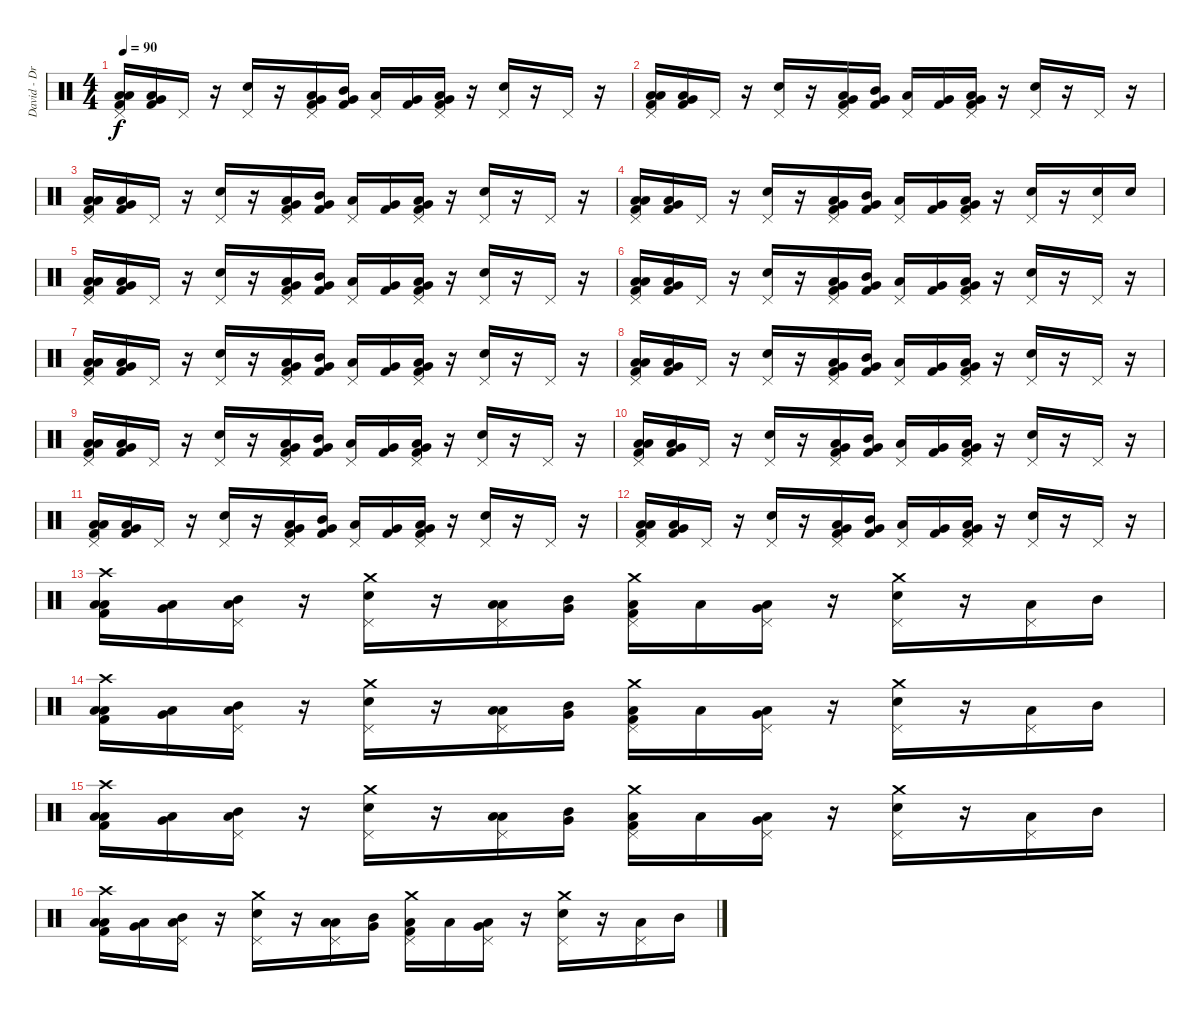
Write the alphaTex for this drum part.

\track ("David - Drums" "David - Dr") {instrument percussion}
\staff {score}
\articulation defaults
\ts (4 4)
\tempo 90
\clef neutral
\ks c
("Pedal Hi-Hat (hit)" "Low Tom (hit)" "Low Floor Tom (hit)" "Kick (hit) 2").16{dy f} ("Very Low Tom (hit)" "Low Floor Tom (hit)" "Kick (hit) 2").16 "Pedal Hi-Hat (hit)".16 r.16 ("Pedal Hi-Hat (hit)" "Electric Snare (hit)").16 r.16 ("Pedal Hi-Hat (hit)" "Very Low Tom (hit)" "Low Floor Tom (hit)" "Kick (hit) 2").16 ("Very Low Tom (hit)" "Mid Tom (hit)" "Kick (hit) 2").16 ("Pedal Hi-Hat (hit)" "Low Tom (hit)").16 ("Very Low Tom (hit)" "Kick (hit) 2").16 ("Pedal Hi-Hat (hit)" "Very Low Tom (hit)" "Low Floor Tom (hit)" "Kick (hit) 2").16 r.16 ("Pedal Hi-Hat (hit)" "Electric Snare (hit)").16 r.16 "Pedal Hi-Hat (hit)".16 r.16 |
("Pedal Hi-Hat (hit)" "Low Tom (hit)" "Low Floor Tom (hit)" "Kick (hit) 2").16 ("Very Low Tom (hit)" "Low Floor Tom (hit)" "Kick (hit) 2").16 "Pedal Hi-Hat (hit)".16 r.16 ("Pedal Hi-Hat (hit)" "Electric Snare (hit)").16 r.16 ("Pedal Hi-Hat (hit)" "Very Low Tom (hit)" "Low Floor Tom (hit)" "Kick (hit) 2").16 ("Very Low Tom (hit)" "Mid Tom (hit)" "Kick (hit) 2").16 ("Pedal Hi-Hat (hit)" "Low Tom (hit)").16 ("Very Low Tom (hit)" "Kick (hit) 2").16 ("Pedal Hi-Hat (hit)" "Very Low Tom (hit)" "Low Floor Tom (hit)" "Kick (hit) 2").16 r.16 ("Pedal Hi-Hat (hit)" "Electric Snare (hit)").16 r.16 "Pedal Hi-Hat (hit)".16 r.16 |
("Pedal Hi-Hat (hit)" "Low Tom (hit)" "Low Floor Tom (hit)" "Kick (hit) 2").16 ("Very Low Tom (hit)" "Low Floor Tom (hit)" "Kick (hit) 2").16 "Pedal Hi-Hat (hit)".16 r.16 ("Pedal Hi-Hat (hit)" "Electric Snare (hit)").16 r.16 ("Pedal Hi-Hat (hit)" "Very Low Tom (hit)" "Low Floor Tom (hit)" "Kick (hit) 2").16 ("Very Low Tom (hit)" "Mid Tom (hit)" "Kick (hit) 2").16 ("Pedal Hi-Hat (hit)" "Low Tom (hit)").16 ("Very Low Tom (hit)" "Kick (hit) 2").16 ("Pedal Hi-Hat (hit)" "Very Low Tom (hit)" "Low Floor Tom (hit)" "Kick (hit) 2").16 r.16 ("Pedal Hi-Hat (hit)" "Electric Snare (hit)").16 r.16 "Pedal Hi-Hat (hit)".16 r.16 |
("Pedal Hi-Hat (hit)" "Low Tom (hit)" "Low Floor Tom (hit)" "Kick (hit) 2").16 ("Very Low Tom (hit)" "Low Floor Tom (hit)" "Kick (hit) 2").16 "Pedal Hi-Hat (hit)".16 r.16 ("Pedal Hi-Hat (hit)" "Electric Snare (hit)").16 r.16 ("Pedal Hi-Hat (hit)" "Very Low Tom (hit)" "Low Floor Tom (hit)" "Kick (hit) 2").16 ("Very Low Tom (hit)" "Mid Tom (hit)" "Kick (hit) 2").16 ("Pedal Hi-Hat (hit)" "Low Tom (hit)").16 ("Very Low Tom (hit)" "Kick (hit) 2").16 ("Pedal Hi-Hat (hit)" "Very Low Tom (hit)" "Low Floor Tom (hit)" "Kick (hit) 2").16 r.16 ("Pedal Hi-Hat (hit)" "Electric Snare (hit)").16 r.16 ("Pedal Hi-Hat (hit)" "Electric Snare (hit)").16 "Electric Snare (hit)".16 |
("Pedal Hi-Hat (hit)" "Low Tom (hit)" "Low Floor Tom (hit)" "Kick (hit) 2").16 ("Very Low Tom (hit)" "Low Floor Tom (hit)" "Kick (hit) 2").16 "Pedal Hi-Hat (hit)".16 r.16 ("Pedal Hi-Hat (hit)" "Electric Snare (hit)").16 r.16 ("Pedal Hi-Hat (hit)" "Very Low Tom (hit)" "Low Floor Tom (hit)" "Kick (hit) 2").16 ("Very Low Tom (hit)" "Mid Tom (hit)" "Kick (hit) 2").16 ("Pedal Hi-Hat (hit)" "Low Tom (hit)").16 ("Very Low Tom (hit)" "Kick (hit) 2").16 ("Pedal Hi-Hat (hit)" "Very Low Tom (hit)" "Low Floor Tom (hit)" "Kick (hit) 2").16 r.16 ("Pedal Hi-Hat (hit)" "Electric Snare (hit)").16 r.16 "Pedal Hi-Hat (hit)".16 r.16 |
("Pedal Hi-Hat (hit)" "Low Tom (hit)" "Low Floor Tom (hit)" "Kick (hit) 2").16 ("Very Low Tom (hit)" "Low Floor Tom (hit)" "Kick (hit) 2").16 "Pedal Hi-Hat (hit)".16 r.16 ("Pedal Hi-Hat (hit)" "Electric Snare (hit)").16 r.16 ("Pedal Hi-Hat (hit)" "Very Low Tom (hit)" "Low Floor Tom (hit)" "Kick (hit) 2").16 ("Very Low Tom (hit)" "Mid Tom (hit)" "Kick (hit) 2").16 ("Pedal Hi-Hat (hit)" "Low Tom (hit)").16 ("Very Low Tom (hit)" "Kick (hit) 2").16 ("Pedal Hi-Hat (hit)" "Very Low Tom (hit)" "Low Floor Tom (hit)" "Kick (hit) 2").16 r.16 ("Pedal Hi-Hat (hit)" "Electric Snare (hit)").16 r.16 "Pedal Hi-Hat (hit)".16 r.16 |
("Pedal Hi-Hat (hit)" "Low Tom (hit)" "Low Floor Tom (hit)" "Kick (hit) 2").16 ("Very Low Tom (hit)" "Low Floor Tom (hit)" "Kick (hit) 2").16 "Pedal Hi-Hat (hit)".16 r.16 ("Pedal Hi-Hat (hit)" "Electric Snare (hit)").16 r.16 ("Pedal Hi-Hat (hit)" "Very Low Tom (hit)" "Low Floor Tom (hit)" "Kick (hit) 2").16 ("Very Low Tom (hit)" "Mid Tom (hit)" "Kick (hit) 2").16 ("Pedal Hi-Hat (hit)" "Low Tom (hit)").16 ("Very Low Tom (hit)" "Kick (hit) 2").16 ("Pedal Hi-Hat (hit)" "Very Low Tom (hit)" "Low Floor Tom (hit)" "Kick (hit) 2").16 r.16 ("Pedal Hi-Hat (hit)" "Electric Snare (hit)").16 r.16 "Pedal Hi-Hat (hit)".16 r.16 |
("Pedal Hi-Hat (hit)" "Low Tom (hit)" "Low Floor Tom (hit)" "Kick (hit) 2").16 ("Very Low Tom (hit)" "Low Floor Tom (hit)" "Kick (hit) 2").16 "Pedal Hi-Hat (hit)".16 r.16 ("Pedal Hi-Hat (hit)" "Electric Snare (hit)").16 r.16 ("Pedal Hi-Hat (hit)" "Very Low Tom (hit)" "Low Floor Tom (hit)" "Kick (hit) 2").16 ("Very Low Tom (hit)" "Mid Tom (hit)" "Kick (hit) 2").16 ("Pedal Hi-Hat (hit)" "Low Tom (hit)").16 ("Very Low Tom (hit)" "Kick (hit) 2").16 ("Pedal Hi-Hat (hit)" "Very Low Tom (hit)" "Low Floor Tom (hit)" "Kick (hit) 2").16 r.16 ("Pedal Hi-Hat (hit)" "Electric Snare (hit)").16 r.16 "Pedal Hi-Hat (hit)".16 r.16 |
("Pedal Hi-Hat (hit)" "Low Tom (hit)" "Low Floor Tom (hit)" "Kick (hit) 2").16 ("Very Low Tom (hit)" "Low Floor Tom (hit)" "Kick (hit) 2").16 "Pedal Hi-Hat (hit)".16 r.16 ("Pedal Hi-Hat (hit)" "Electric Snare (hit)").16 r.16 ("Pedal Hi-Hat (hit)" "Very Low Tom (hit)" "Low Floor Tom (hit)" "Kick (hit) 2").16 ("Very Low Tom (hit)" "Mid Tom (hit)" "Kick (hit) 2").16 ("Pedal Hi-Hat (hit)" "Low Tom (hit)").16 ("Very Low Tom (hit)" "Kick (hit) 2").16 ("Pedal Hi-Hat (hit)" "Very Low Tom (hit)" "Low Floor Tom (hit)" "Kick (hit) 2").16 r.16 ("Pedal Hi-Hat (hit)" "Electric Snare (hit)").16 r.16 "Pedal Hi-Hat (hit)".16 r.16 |
("Pedal Hi-Hat (hit)" "Low Tom (hit)" "Low Floor Tom (hit)" "Kick (hit) 2").16 ("Very Low Tom (hit)" "Low Floor Tom (hit)" "Kick (hit) 2").16 "Pedal Hi-Hat (hit)".16 r.16 ("Pedal Hi-Hat (hit)" "Electric Snare (hit)").16 r.16 ("Pedal Hi-Hat (hit)" "Very Low Tom (hit)" "Low Floor Tom (hit)" "Kick (hit) 2").16 ("Very Low Tom (hit)" "Mid Tom (hit)" "Kick (hit) 2").16 ("Pedal Hi-Hat (hit)" "Low Tom (hit)").16 ("Very Low Tom (hit)" "Kick (hit) 2").16 ("Pedal Hi-Hat (hit)" "Very Low Tom (hit)" "Low Floor Tom (hit)" "Kick (hit) 2").16 r.16 ("Pedal Hi-Hat (hit)" "Electric Snare (hit)").16 r.16 "Pedal Hi-Hat (hit)".16 r.16 |
("Pedal Hi-Hat (hit)" "Low Tom (hit)" "Low Floor Tom (hit)" "Kick (hit) 2").16 ("Very Low Tom (hit)" "Low Floor Tom (hit)" "Kick (hit) 2").16 "Pedal Hi-Hat (hit)".16 r.16 ("Pedal Hi-Hat (hit)" "Electric Snare (hit)").16 r.16 ("Pedal Hi-Hat (hit)" "Very Low Tom (hit)" "Low Floor Tom (hit)" "Kick (hit) 2").16 ("Very Low Tom (hit)" "Mid Tom (hit)" "Kick (hit) 2").16 ("Pedal Hi-Hat (hit)" "Low Tom (hit)").16 ("Very Low Tom (hit)" "Kick (hit) 2").16 ("Pedal Hi-Hat (hit)" "Very Low Tom (hit)" "Low Floor Tom (hit)" "Kick (hit) 2").16 r.16 ("Pedal Hi-Hat (hit)" "Electric Snare (hit)").16 r.16 "Pedal Hi-Hat (hit)".16 r.16 |
("Pedal Hi-Hat (hit)" "Low Tom (hit)" "Low Floor Tom (hit)" "Kick (hit) 2").16 ("Very Low Tom (hit)" "Low Floor Tom (hit)" "Kick (hit) 2").16 "Pedal Hi-Hat (hit)".16 r.16 ("Pedal Hi-Hat (hit)" "Electric Snare (hit)").16 r.16 ("Pedal Hi-Hat (hit)" "Very Low Tom (hit)" "Low Floor Tom (hit)" "Kick (hit) 2").16 ("Very Low Tom (hit)" "Mid Tom (hit)" "Kick (hit) 2").16 ("Pedal Hi-Hat (hit)" "Low Tom (hit)").16 ("Very Low Tom (hit)" "Kick (hit) 2").16 ("Pedal Hi-Hat (hit)" "Very Low Tom (hit)" "Low Floor Tom (hit)" "Kick (hit) 2").16 r.16 ("Pedal Hi-Hat (hit)" "Electric Snare (hit)").16 r.16 "Pedal Hi-Hat (hit)".16 r.16 |
("Crash high (hit)" "Low Tom (hit)" "Low Floor Tom (hit)" "Kick (hit) 2").16 ("Very Low Tom (hit)" "Low Floor Tom (hit)").16 ("Pedal Hi-Hat (hit)" "Mid Tom (hit)" "Low Tom (hit)").16 r.16 ("Pedal Hi-Hat (hit)" "Crash medium (hit)" "Electric Snare (hit)").16 r.16 ("Pedal Hi-Hat (hit)" "Low Tom (hit)" "Low Floor Tom (hit)").16 ("Very Low Tom (hit)" "Mid Tom (hit)").16 ("Pedal Hi-Hat (hit)" "Crash medium (hit)" "Low Tom (hit)" "Kick (hit) 2").16 "Low Tom (hit)".16 ("Pedal Hi-Hat (hit)" "Very Low Tom (hit)" "Low Floor Tom (hit)").16 r.16 ("Pedal Hi-Hat (hit)" "Crash medium (hit)" "Electric Snare (hit)").16 r.16 ("Pedal Hi-Hat (hit)" "Low Tom (hit)").16 "Mid Tom (hit)".16 |
("Crash high (hit)" "Low Tom (hit)" "Low Floor Tom (hit)" "Kick (hit) 2").16 ("Very Low Tom (hit)" "Low Floor Tom (hit)").16 ("Pedal Hi-Hat (hit)" "Mid Tom (hit)" "Low Tom (hit)").16 r.16 ("Pedal Hi-Hat (hit)" "Crash medium (hit)" "Electric Snare (hit)").16 r.16 ("Pedal Hi-Hat (hit)" "Low Tom (hit)" "Low Floor Tom (hit)").16 ("Very Low Tom (hit)" "Mid Tom (hit)").16 ("Pedal Hi-Hat (hit)" "Crash medium (hit)" "Low Tom (hit)" "Kick (hit) 2").16 "Low Tom (hit)".16 ("Pedal Hi-Hat (hit)" "Very Low Tom (hit)" "Low Floor Tom (hit)").16 r.16 ("Pedal Hi-Hat (hit)" "Crash medium (hit)" "Electric Snare (hit)").16 r.16 ("Pedal Hi-Hat (hit)" "Low Tom (hit)").16 "Mid Tom (hit)".16 |
("Crash high (hit)" "Low Tom (hit)" "Low Floor Tom (hit)" "Kick (hit) 2").16 ("Very Low Tom (hit)" "Low Floor Tom (hit)").16 ("Pedal Hi-Hat (hit)" "Mid Tom (hit)" "Low Tom (hit)").16 r.16 ("Pedal Hi-Hat (hit)" "Crash medium (hit)" "Electric Snare (hit)").16 r.16 ("Pedal Hi-Hat (hit)" "Low Tom (hit)" "Low Floor Tom (hit)").16 ("Very Low Tom (hit)" "Mid Tom (hit)").16 ("Pedal Hi-Hat (hit)" "Crash medium (hit)" "Low Tom (hit)" "Kick (hit) 2").16 "Low Tom (hit)".16 ("Pedal Hi-Hat (hit)" "Very Low Tom (hit)" "Low Floor Tom (hit)").16 r.16 ("Pedal Hi-Hat (hit)" "Crash medium (hit)" "Electric Snare (hit)").16 r.16 ("Pedal Hi-Hat (hit)" "Low Tom (hit)").16 "Mid Tom (hit)".16 |
("Crash high (hit)" "Low Tom (hit)" "Low Floor Tom (hit)" "Kick (hit) 2").16 ("Very Low Tom (hit)" "Low Floor Tom (hit)").16 ("Pedal Hi-Hat (hit)" "Mid Tom (hit)" "Low Tom (hit)").16 r.16 ("Pedal Hi-Hat (hit)" "Crash medium (hit)" "Electric Snare (hit)").16 r.16 ("Pedal Hi-Hat (hit)" "Low Tom (hit)" "Low Floor Tom (hit)").16 ("Very Low Tom (hit)" "Mid Tom (hit)").16 ("Pedal Hi-Hat (hit)" "Crash medium (hit)" "Low Tom (hit)" "Kick (hit) 2").16 "Low Tom (hit)".16 ("Pedal Hi-Hat (hit)" "Very Low Tom (hit)" "Low Floor Tom (hit)").16 r.16 ("Pedal Hi-Hat (hit)" "Crash medium (hit)" "Electric Snare (hit)").16 r.16 ("Pedal Hi-Hat (hit)" "Low Tom (hit)").16 "Mid Tom (hit)".16
